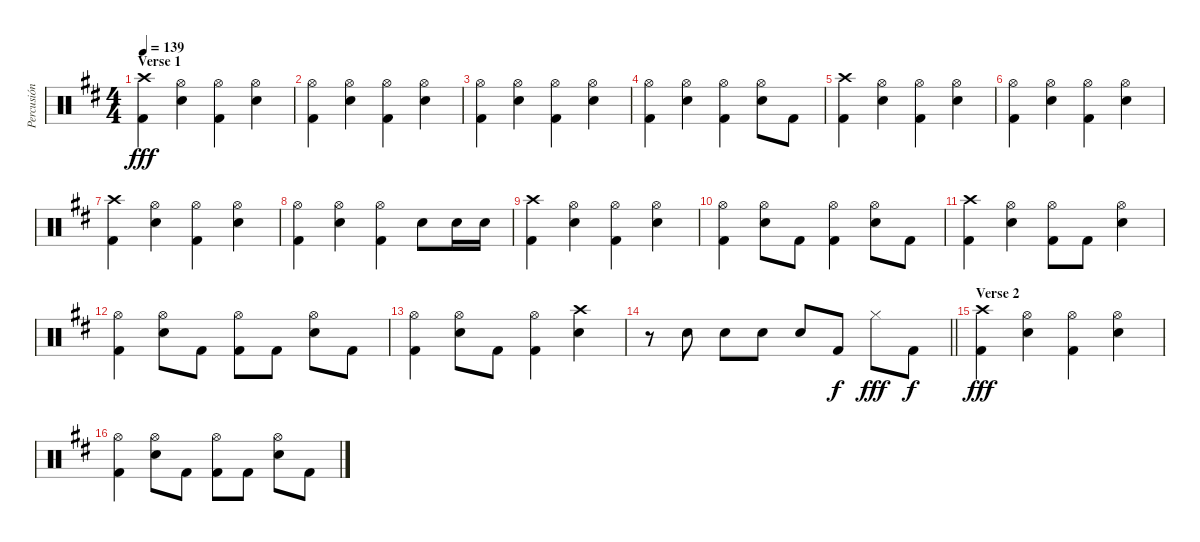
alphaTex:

\track ("Percusión" "Percusión") {instrument percussion}
\staff {score}
\articulation defaults
\ts (4 4)
\section ("" "Verse 1")
\tempo 139
\clef neutral
\ks d
("Crash high (hit)" "Kick (hit) 2").4{dy fff} ("Hi-Hat (open)" "Electric Snare (hit)").4 ("Hi-Hat (open)" "Kick (hit) 2").4 ("Hi-Hat (open)" "Electric Snare (hit)").4 |
("Hi-Hat (open)" "Kick (hit) 2").4 ("Hi-Hat (open)" "Electric Snare (hit)").4 ("Hi-Hat (open)" "Kick (hit) 2").4 ("Hi-Hat (open)" "Electric Snare (hit)").4 |
("Hi-Hat (open)" "Kick (hit) 2").4 ("Hi-Hat (open)" "Electric Snare (hit)").4 ("Hi-Hat (open)" "Kick (hit) 2").4 ("Hi-Hat (open)" "Electric Snare (hit)").4 |
("Hi-Hat (open)" "Kick (hit) 2").4 ("Hi-Hat (open)" "Electric Snare (hit)").4 ("Hi-Hat (open)" "Kick (hit) 2").4 ("Hi-Hat (open)" "Electric Snare (hit)").8 "Kick (hit) 2".8 |
("Crash high (hit)" "Kick (hit) 2").4 ("Hi-Hat (open)" "Electric Snare (hit)").4 ("Hi-Hat (open)" "Kick (hit) 2").4 ("Hi-Hat (open)" "Electric Snare (hit)").4 |
("Hi-Hat (open)" "Kick (hit) 2").4 ("Hi-Hat (open)" "Electric Snare (hit)").4 ("Hi-Hat (open)" "Kick (hit) 2").4 ("Hi-Hat (open)" "Electric Snare (hit)").4 |
("Crash high (hit)" "Kick (hit) 2").4 ("Hi-Hat (open)" "Electric Snare (hit)").4 ("Hi-Hat (open)" "Kick (hit) 2").4 ("Hi-Hat (open)" "Electric Snare (hit)").4 |
("Hi-Hat (open)" "Kick (hit) 2").4 ("Hi-Hat (open)" "Electric Snare (hit)").4 ("Hi-Hat (open)" "Kick (hit) 2").4 "Electric Snare (hit)".8 "Electric Snare (hit)".16 "Electric Snare (hit)".16 |
("Crash high (hit)" "Kick (hit) 2").4 ("Hi-Hat (open)" "Electric Snare (hit)").4 ("Hi-Hat (open)" "Kick (hit) 2").4 ("Hi-Hat (open)" "Electric Snare (hit)").4 |
("Hi-Hat (open)" "Kick (hit) 2").4 ("Hi-Hat (open)" "Electric Snare (hit)").8 "Kick (hit) 2".8 ("Hi-Hat (open)" "Kick (hit) 2").4 ("Hi-Hat (open)" "Electric Snare (hit)").8 "Kick (hit) 2".8 |
("Crash high (hit)" "Kick (hit) 2").4 ("Hi-Hat (open)" "Electric Snare (hit)").4 ("Hi-Hat (open)" "Kick (hit) 2").8 "Kick (hit) 2".8 ("Hi-Hat (open)" "Electric Snare (hit)").4 |
("Hi-Hat (open)" "Kick (hit) 2").4 ("Hi-Hat (open)" "Electric Snare (hit)").8 "Kick (hit) 2".8 ("Hi-Hat (open)" "Kick (hit) 2").8 "Kick (hit) 2".8 ("Hi-Hat (open)" "Electric Snare (hit)").8 "Kick (hit) 2".8 |
("Hi-Hat (open)" "Kick (hit) 2").4 ("Hi-Hat (open)" "Electric Snare (hit)").8 "Kick (hit) 2".8 ("Hi-Hat (open)" "Kick (hit) 2").4 ("Crash high (hit)" "Electric Snare (hit)").4 |
\barLineRight lightlight
r.8 "Snare (hit) 2".8 "Snare (hit) 2".8 "Snare (hit) 2".8 "Snare (hit) 2".8 "Kick (hit) 2".8{dy f} "Hi-Hat (closed)".8{dy fff} "Kick (hit) 2".8{dy f} |
\section ("" "Verse 2")
("Crash high (hit)" "Kick (hit) 2").4{dy fff} ("Hi-Hat (open)" "Electric Snare (hit)").4 ("Hi-Hat (open)" "Kick (hit) 2").4 ("Hi-Hat (open)" "Electric Snare (hit)").4 |
("Hi-Hat (open)" "Kick (hit) 2").4 ("Hi-Hat (open)" "Electric Snare (hit)").8 "Kick (hit) 2".8 ("Hi-Hat (open)" "Kick (hit) 2").8 "Kick (hit) 2".8 ("Hi-Hat (open)" "Electric Snare (hit)").8 "Kick (hit) 2".8
